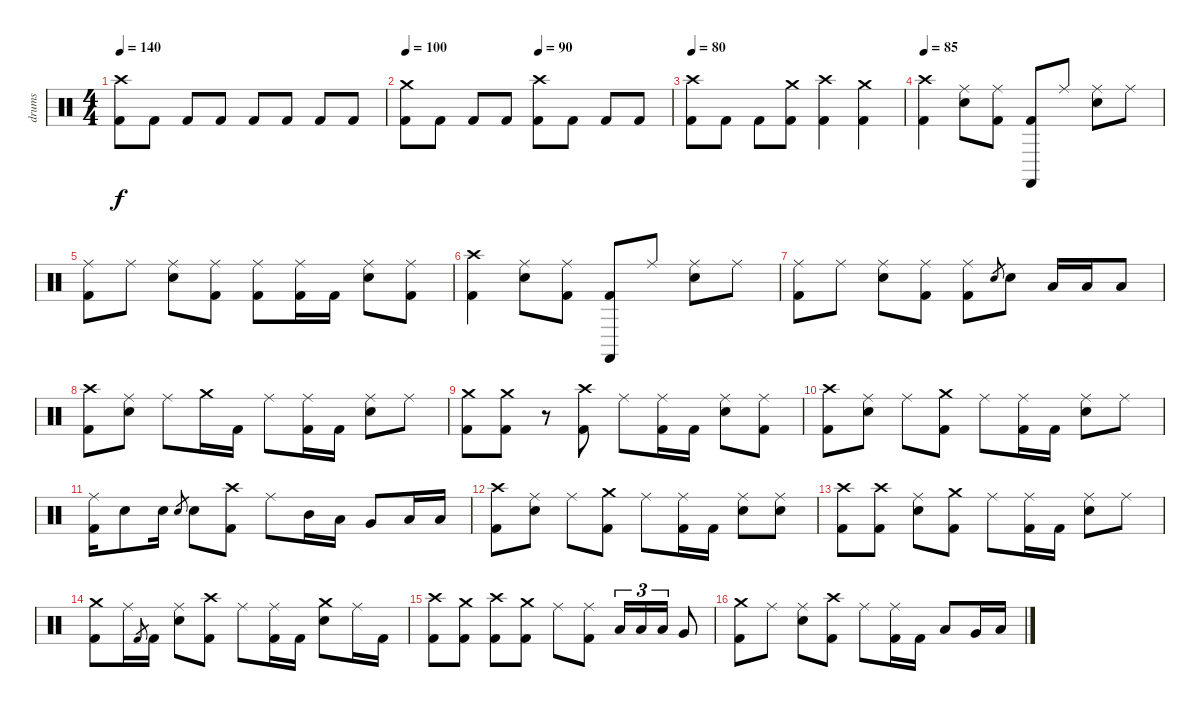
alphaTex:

\track ("drums" "drums") {instrument percussion}
\staff {score}
\articulation defaults
\ts (4 4)
\tempo 140
\clef neutral
\ks c
("Crash high (hit)" "Kick (hit) 2").8{dy f} "Kick (hit) 2".8 "Kick (hit) 2".8 "Kick (hit) 2".8 "Kick (hit) 2".8 "Kick (hit) 2".8 "Kick (hit) 2".8 "Kick (hit) 2".8 |
\tempo 100
\tempo (90 0.5)
("Crash medium (hit)" "Kick (hit) 2").8 "Kick (hit) 2".8 "Kick (hit) 2".8 "Kick (hit) 2".8 ("Crash high (hit)" "Kick (hit) 2").8 "Kick (hit) 2".8 "Kick (hit) 2".8 "Kick (hit) 2".8 |
\tempo 80
("Crash high (hit)" "Kick (hit) 2").8 "Kick (hit) 2".8 "Kick (hit) 2".8 ("Crash medium (hit)" "Kick (hit) 2").8 ("Crash high (hit)" "Kick (hit) 2").4 ("Crash medium (hit)" "Kick (hit) 2").4 |
\tempo 85
("Crash high (hit)" "Kick (hit) 2").4 ("Ride (middle)" "Electric Snare (hit)").8 ("Ride (middle)" "Kick (hit) 2").8 ("Castanets (hit)" "Kick (hit) 2").8 "Ride (middle)".8 ("Ride (middle)" "Electric Snare (hit)").8 "Ride (middle)".8 |
("Ride (middle)" "Kick (hit) 2").8 "Ride (middle)".8 ("Ride (middle)" "Electric Snare (hit)").8 ("Ride (middle)" "Kick (hit) 2").8 ("Ride (middle)" "Kick (hit) 2").8 ("Ride (middle)" "Kick (hit) 2").16 "Kick (hit) 2".16 ("Ride (middle)" "Electric Snare (hit)").8 ("Ride (middle)" "Kick (hit) 2").8 |
("Crash high (hit)" "Kick (hit) 2").4 ("Ride (middle)" "Electric Snare (hit)").8 ("Ride (middle)" "Kick (hit) 2").8 ("Castanets (hit)" "Kick (hit) 2").8 "Ride (middle)".8 ("Ride (middle)" "Electric Snare (hit)").8 "Ride (middle)".8 |
("Ride (middle)" "Kick (hit) 2").8 "Ride (middle)".8 ("Ride (middle)" "Electric Snare (hit)").8 ("Ride (middle)" "Kick (hit) 2").8 ("Ride (middle)" "Kick (hit) 2").8 "Electric Snare (hit)".8{gr} "Electric Snare (hit)".8 "Low Tom (hit)".16 "Low Tom (hit)".16 "Low Tom (hit)".8 |
("Crash high (hit)" "Kick (hit) 2").8 ("Ride (middle)" "Electric Snare (hit)").8 "Ride (middle)".8 "Crash medium (hit)".16 "Kick (hit) 2".16 "Ride (middle)".8 ("Ride (middle)" "Kick (hit) 2").16 "Kick (hit) 2".16 ("Ride (middle)" "Electric Snare (hit)").8 "Ride (middle)".8 |
("Crash medium (hit)" "Kick (hit) 2").8 ("Crash medium (hit)" "Kick (hit) 2").8 r.8 ("Crash high (hit)" "Kick (hit) 2").8 "Ride (middle)".8 ("Ride (middle)" "Kick (hit) 2").16 "Kick (hit) 2".16 ("Ride (middle)" "Electric Snare (hit)").8 ("Ride (middle)" "Kick (hit) 2").8 |
("Crash high (hit)" "Kick (hit) 2").8 ("Ride (middle)" "Electric Snare (hit)").8 "Ride (middle)".8 ("Crash medium (hit)" "Kick (hit) 2").8 "Ride (middle)".8 ("Ride (middle)" "Kick (hit) 2").16 "Kick (hit) 2".16 ("Ride (middle)" "Electric Snare (hit)").8 "Ride (middle)".8 |
("Ride (middle)" "Kick (hit) 2").16 "Electric Snare (hit)".8 "Electric Snare (hit)".16 "Electric Snare (hit)".8{gr} "Electric Snare (hit)".8 ("Crash high (hit)" "Kick (hit) 2").8 "Ride (middle)".8 "Mid Tom (hit)".16 "Low Tom (hit)".16 "Very Low Tom (hit)".8 "Low Floor Tom (hit)".16 "Low Floor Tom (hit)".16 |
("Crash high (hit)" "Kick (hit) 2").8 ("Ride (middle)" "Electric Snare (hit)").8 "Ride (middle)".8 ("Crash medium (hit)" "Kick (hit) 2").8 "Ride (middle)".8 ("Ride (middle)" "Kick (hit) 2").16 "Kick (hit) 2".16 ("Ride (middle)" "Electric Snare (hit)").8 ("Ride (middle)" "Electric Snare (hit)").8 |
("Crash high (hit)" "Kick (hit) 2").8 ("Crash high (hit)" "Kick (hit) 2").8 ("Ride (middle)" "Electric Snare (hit)").8 ("Crash medium (hit)" "Kick (hit) 2").8 "Ride (middle)".8 ("Ride (middle)" "Kick (hit) 2").16 "Kick (hit) 2".16 ("Ride (middle)" "Electric Snare (hit)").8 "Ride (middle)".8 |
("Crash medium (hit)" "Kick (hit) 2").8 "Ride (middle)".16 "Kick (hit) 2".8{gr} "Kick (hit) 2".16 ("Ride (middle)" "Electric Snare (hit)").8 ("Crash high (hit)" "Kick (hit) 2").8 "Ride (middle)".8 ("Ride (middle)" "Kick (hit) 2").16 "Kick (hit) 2".16 ("Crash medium (hit)" "Electric Snare (hit)").8 "Ride (middle)".16 "Kick (hit) 2".16 |
("Crash high (hit)" "Kick (hit) 2").8 ("Crash medium (hit)" "Kick (hit) 2").8 ("Crash high (hit)" "Kick (hit) 2").8 ("Crash medium (hit)" "Kick (hit) 2").8 "Ride (middle)".8 ("Ride (middle)" "Kick (hit) 2").8 "Low Tom (hit)".16{tu (3 2)} "Low Tom (hit)".16{tu (3 2)} "Low Tom (hit)".16{tu (3 2)} "Very Low Tom (hit)".8 |
("Crash medium (hit)" "Kick (hit) 2").8 "Ride (middle)".8 ("Ride (middle)" "Electric Snare (hit)").8 ("Crash high (hit)" "Kick (hit) 2").8 "Ride (middle)".8 ("Ride (middle)" "Kick (hit) 2").16 "Kick (hit) 2".16 "Low Tom (hit)".8 "Very Low Tom (hit)".16 "Low Floor Tom (hit)".16
